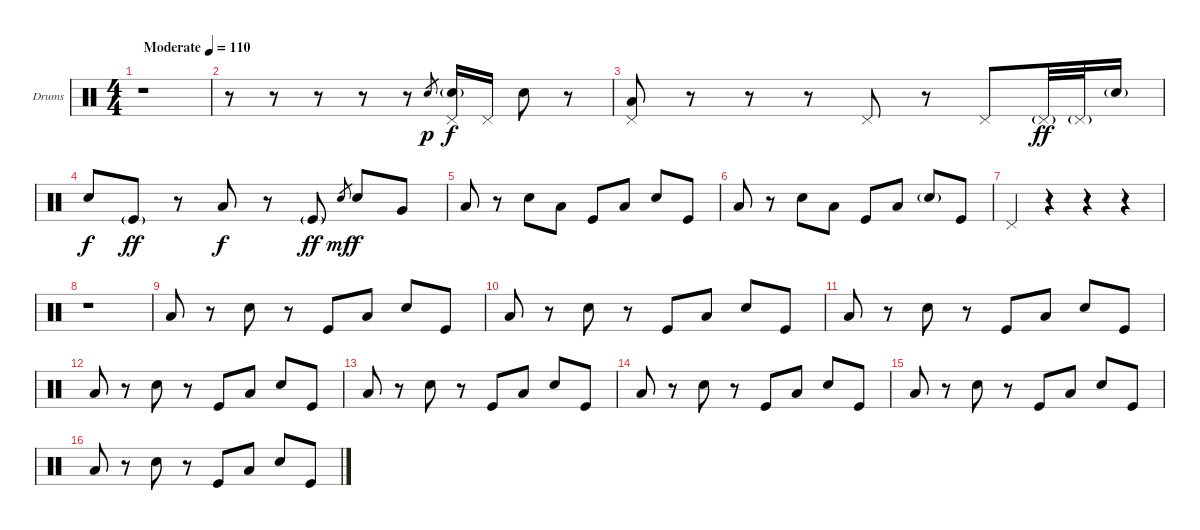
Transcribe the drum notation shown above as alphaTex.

\bracketExtendMode groupsimilarinstruments
\firstSystemTrackNameOrientation horizontal
\otherSystemsTrackNameOrientation horizontal
\track ("Drumkit" "Drums") {instrument percussion}
\staff {score}
\articulation defaults
\ts (4 4)
\beaming (8 2 2 2 2)
\tempo (110 "Moderate")
\clef neutral
\ks c
r.1{dy p} |
r.8 r.8 r.8 r.8 r.8 "Snare (hit) 2".8{gr} ("Pedal Hi-Hat (hit)" "Snare (hit) 2"{g}).16{dy f} "Pedal Hi-Hat (hit)".16 "Snare (hit) 2".8 r.8 |
("Pedal Hi-Hat (hit)" "Low Tom (hit)").8 r.8 r.8 r.8 "Pedal Hi-Hat (hit)".8 r.8 "Pedal Hi-Hat (hit)".8 "Pedal Hi-Hat (hit)"{g}.32{dy ff} "Pedal Hi-Hat (hit)"{g}.32 "Snare (hit) 2"{g}.16 |
"Snare (hit) 2".8{dy f} "Kick (hit)"{g}.8{dy ff} r.8 "Low Tom (hit)".8{dy f} r.8 "Kick (hit)"{g}.8{dy ff} "Snare (hit) 2".8{gr dy mf} "Snare (hit) 2".8{dy f} "Very Low Tom (hit)".8 |
"Low Tom (hit)".8 r.8 "Snare (hit) 2".8 "Low Tom (hit)".8 "Kick (hit)".8 "Low Tom (hit)".8 "Snare (hit) 2".8 "Kick (hit)".8 |
"Low Tom (hit)".8 r.8 "Snare (hit) 2".8 "Low Tom (hit)".8 "Kick (hit)".8 "Low Tom (hit)".8 "Snare (hit) 2"{g}.8 "Kick (hit)".8 |
"Pedal Hi-Hat (hit)".4 r.4 r.4 r.4 |
r.1 |
"Low Tom (hit)".8 r.8 "Snare (hit) 2".8 r.8 "Kick (hit)".8 "Low Tom (hit)".8 "Snare (hit) 2".8 "Kick (hit)".8 |
"Low Tom (hit)".8 r.8 "Snare (hit) 2".8 r.8 "Kick (hit)".8 "Low Tom (hit)".8 "Snare (hit) 2".8 "Kick (hit)".8 |
"Low Tom (hit)".8 r.8 "Snare (hit) 2".8 r.8 "Kick (hit)".8 "Low Tom (hit)".8 "Snare (hit) 2".8 "Kick (hit)".8 |
"Low Tom (hit)".8 r.8 "Snare (hit) 2".8 r.8 "Kick (hit)".8 "Low Tom (hit)".8 "Snare (hit) 2".8 "Kick (hit)".8 |
"Low Tom (hit)".8 r.8 "Snare (hit) 2".8 r.8 "Kick (hit)".8 "Low Tom (hit)".8 "Snare (hit) 2".8 "Kick (hit)".8 |
"Low Tom (hit)".8 r.8 "Snare (hit) 2".8 r.8 "Kick (hit)".8 "Low Tom (hit)".8 "Snare (hit) 2".8 "Kick (hit)".8 |
"Low Tom (hit)".8 r.8 "Snare (hit) 2".8 r.8 "Kick (hit)".8 "Low Tom (hit)".8 "Snare (hit) 2".8 "Kick (hit)".8 |
"Low Tom (hit)".8 r.8 "Snare (hit) 2".8 r.8 "Kick (hit)".8 "Low Tom (hit)".8 "Snare (hit) 2".8 "Kick (hit)".8
